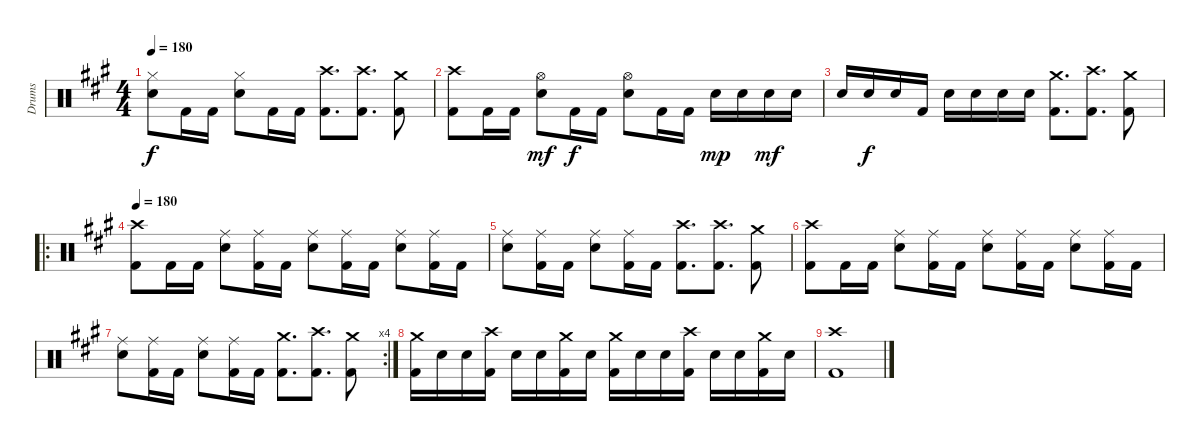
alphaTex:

\track ("Drums" "Drums") {instrument percussion}
\staff {score}
\articulation defaults
\ts (4 4)
\tempo 180
\clef neutral
\ks a
("Hi-Hat (closed)" "Snare (hit) 2").8{dy f} "Kick (hit) 2".16 "Kick (hit) 2".16 ("Hi-Hat (closed)" "Snare (hit) 2").8 "Kick (hit) 2".16 "Kick (hit) 2".16 ("Crash high (hit)" "Kick (hit) 2").8{d} ("Crash high (hit)" "Kick (hit) 2").8{d} ("Crash medium (hit)" "Kick (hit) 2").8 |
("Crash high (hit)" "Kick (hit) 2").8 "Kick (hit) 2".16 "Kick (hit) 2".16 ("Hi-Hat (open)" "Snare (hit) 2").8{dy mf} "Kick (hit) 2".16{dy f} "Kick (hit) 2".16 ("Hi-Hat (open)" "Snare (hit) 2").8 "Kick (hit) 2".16 "Kick (hit) 2".16 "Snare (hit) 2".16{dy mp} "Snare (hit) 2".16 "Snare (hit) 2".16{dy mf} "Snare (hit) 2".16 |
"Snare (hit) 2".16 "Snare (hit) 2".16{dy f} "Snare (hit) 2".16 "Kick (hit) 2".16 "Snare (hit) 2".16 "Snare (hit) 2".16 "Snare (hit) 2".16 "Snare (hit) 2".16 ("Crash medium (hit)" "Kick (hit) 2").8{d} ("Crash high (hit)" "Kick (hit) 2").8{d} ("Crash medium (hit)" "Kick (hit) 2").8 |
\ro
\tempo 180
("Crash high (hit)" "Kick (hit) 2").8 "Kick (hit) 2".16 "Kick (hit) 2".16 ("Ride (middle)" "Snare (hit) 2").8 ("Ride (middle)" "Kick (hit) 2").16 "Kick (hit) 2".16 ("Ride (middle)" "Snare (hit) 2").8 ("Ride (middle)" "Kick (hit) 2").16 "Kick (hit) 2".16 ("Ride (middle)" "Snare (hit) 2").8 ("Ride (middle)" "Kick (hit) 2").16 "Kick (hit) 2".16 |
("Ride (middle)" "Snare (hit) 2").8 ("Ride (middle)" "Kick (hit) 2").16 "Kick (hit) 2".16 ("Ride (middle)" "Snare (hit) 2").8 ("Ride (middle)" "Kick (hit) 2").16 "Kick (hit) 2".16 ("Crash high (hit)" "Kick (hit) 2").8{d} ("Crash high (hit)" "Kick (hit) 2").8{d} ("Crash medium (hit)" "Kick (hit) 2").8 |
("Crash high (hit)" "Kick (hit) 2").8 "Kick (hit) 2".16 "Kick (hit) 2".16 ("Ride (middle)" "Snare (hit) 2").8 ("Ride (middle)" "Kick (hit) 2").16 "Kick (hit) 2".16 ("Ride (middle)" "Snare (hit) 2").8 ("Ride (middle)" "Kick (hit) 2").16 "Kick (hit) 2".16 ("Ride (middle)" "Snare (hit) 2").8 ("Ride (middle)" "Kick (hit) 2").16 "Kick (hit) 2".16 |
\rc 4
("Ride (middle)" "Snare (hit) 2").8 ("Ride (middle)" "Kick (hit) 2").16 "Kick (hit) 2".16 ("Ride (middle)" "Snare (hit) 2").8 ("Ride (middle)" "Kick (hit) 2").16 "Kick (hit) 2".16 ("Crash medium (hit)" "Kick (hit) 2").8{d} ("Crash high (hit)" "Kick (hit) 2").8{d} ("Crash medium (hit)" "Kick (hit) 2").8 |
("Crash medium (hit)" "Kick (hit) 2").16 "Snare (hit) 2".16 "Snare (hit) 2".16 ("Crash high (hit)" "Kick (hit) 2").16 "Snare (hit) 2".16 "Snare (hit) 2".16 ("Crash medium (hit)" "Kick (hit) 2").16 "Snare (hit) 2".16 ("Crash medium (hit)" "Kick (hit) 2").16 "Snare (hit) 2".16 "Snare (hit) 2".16 ("Crash high (hit)" "Kick (hit) 2").16 "Snare (hit) 2".16 "Snare (hit) 2".16 ("Crash medium (hit)" "Kick (hit) 2").16 "Snare (hit) 2".16 |
("Crash high (hit)" "Kick (hit) 2").1
